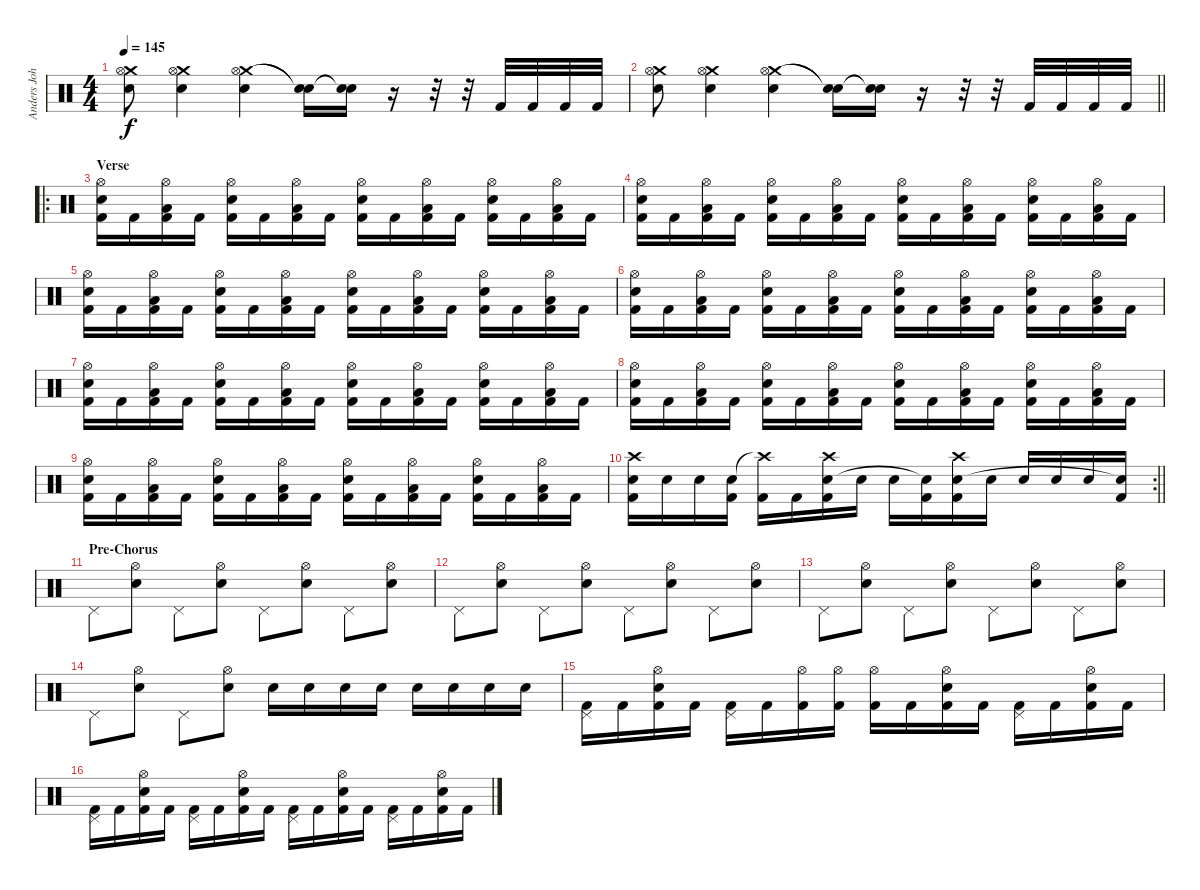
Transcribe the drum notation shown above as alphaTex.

\track ("Anders Johansson (Drums)" "Anders Joh") {instrument percussion}
\staff {score}
\articulation defaults
\ts (4 4)
\tempo 145
\clef neutral
\ks c
("Crash medium (hit)" "Hi-Hat (open)" "Snare (hit) 2").8{dy f} ("Crash medium (hit)" "Hi-Hat (open)" "Snare (hit) 2").4 ("Crash medium (hit)" "Hi-Hat (open)" "Snare (hit) 2").4 ("Snare (hit)"{t} "Snare (hit)"{t}).16 ("Snare (hit)"{t} "Snare (hit)"{t}).16 r.16 r.32 r.32 "Kick (hit) 2".32 "Kick (hit) 2".32 "Kick (hit) 2".32 "Kick (hit) 2".32 |
\barLineRight lightlight
("Crash medium (hit)" "Hi-Hat (open)" "Snare (hit) 2").8 ("Crash medium (hit)" "Hi-Hat (open)" "Snare (hit) 2").4 ("Crash medium (hit)" "Hi-Hat (open)" "Snare (hit) 2").4 ("Snare (hit)"{t} "Snare (hit)"{t}).16 ("Snare (hit)"{t} "Snare (hit)"{t}).16 r.16 r.32 r.32 "Kick (hit) 2".32 "Kick (hit) 2".32 "Kick (hit) 2".32 "Kick (hit) 2".32 |
\ro
\section ("" "Verse")
("Kick (hit) 2" "Electric Snare (hit)" "Hi-Hat (open)").16 "Kick (hit) 2".16 ("Kick (hit) 2" "Low Tom (hit)" "Hi-Hat (open)").16 "Kick (hit) 2".16 ("Kick (hit) 2" "Electric Snare (hit)" "Hi-Hat (open)").16 "Kick (hit) 2".16 ("Kick (hit) 2" "Low Tom (hit)" "Hi-Hat (open)").16 "Kick (hit) 2".16 ("Kick (hit) 2" "Electric Snare (hit)" "Hi-Hat (open)").16 "Kick (hit) 2".16 ("Kick (hit) 2" "Low Tom (hit)" "Hi-Hat (open)").16 "Kick (hit) 2".16 ("Kick (hit) 2" "Electric Snare (hit)" "Hi-Hat (open)").16 "Kick (hit) 2".16 ("Kick (hit) 2" "Low Tom (hit)" "Hi-Hat (open)").16 "Kick (hit) 2".16 |
("Kick (hit) 2" "Electric Snare (hit)" "Hi-Hat (open)").16 "Kick (hit) 2".16 ("Kick (hit) 2" "Low Tom (hit)" "Hi-Hat (open)").16 "Kick (hit) 2".16 ("Kick (hit) 2" "Electric Snare (hit)" "Hi-Hat (open)").16 "Kick (hit) 2".16 ("Kick (hit) 2" "Low Tom (hit)" "Hi-Hat (open)").16 "Kick (hit) 2".16 ("Kick (hit) 2" "Electric Snare (hit)" "Hi-Hat (open)").16 "Kick (hit) 2".16 ("Kick (hit) 2" "Low Tom (hit)" "Hi-Hat (open)").16 "Kick (hit) 2".16 ("Kick (hit) 2" "Electric Snare (hit)" "Hi-Hat (open)").16 "Kick (hit) 2".16 ("Kick (hit) 2" "Low Tom (hit)" "Hi-Hat (open)").16 "Kick (hit) 2".16 |
("Kick (hit) 2" "Electric Snare (hit)" "Hi-Hat (open)").16 "Kick (hit) 2".16 ("Kick (hit) 2" "Low Tom (hit)" "Hi-Hat (open)").16 "Kick (hit) 2".16 ("Kick (hit) 2" "Electric Snare (hit)" "Hi-Hat (open)").16 "Kick (hit) 2".16 ("Kick (hit) 2" "Low Tom (hit)" "Hi-Hat (open)").16 "Kick (hit) 2".16 ("Kick (hit) 2" "Electric Snare (hit)" "Hi-Hat (open)").16 "Kick (hit) 2".16 ("Kick (hit) 2" "Low Tom (hit)" "Hi-Hat (open)").16 "Kick (hit) 2".16 ("Kick (hit) 2" "Electric Snare (hit)" "Hi-Hat (open)").16 "Kick (hit) 2".16 ("Kick (hit) 2" "Low Tom (hit)" "Hi-Hat (open)").16 "Kick (hit) 2".16 |
("Kick (hit) 2" "Electric Snare (hit)" "Hi-Hat (open)").16 "Kick (hit) 2".16 ("Kick (hit) 2" "Low Tom (hit)" "Hi-Hat (open)").16 "Kick (hit) 2".16 ("Kick (hit) 2" "Electric Snare (hit)" "Hi-Hat (open)").16 "Kick (hit) 2".16 ("Kick (hit) 2" "Low Tom (hit)" "Hi-Hat (open)").16 "Kick (hit) 2".16 ("Kick (hit) 2" "Electric Snare (hit)" "Hi-Hat (open)").16 "Kick (hit) 2".16 ("Kick (hit) 2" "Low Tom (hit)" "Hi-Hat (open)").16 "Kick (hit) 2".16 ("Kick (hit) 2" "Electric Snare (hit)" "Hi-Hat (open)").16 "Kick (hit) 2".16 ("Kick (hit) 2" "Low Tom (hit)" "Hi-Hat (open)").16 "Kick (hit) 2".16 |
("Kick (hit) 2" "Electric Snare (hit)" "Hi-Hat (open)").16 "Kick (hit) 2".16 ("Kick (hit) 2" "Low Tom (hit)" "Hi-Hat (open)").16 "Kick (hit) 2".16 ("Kick (hit) 2" "Electric Snare (hit)" "Hi-Hat (open)").16 "Kick (hit) 2".16 ("Kick (hit) 2" "Low Tom (hit)" "Hi-Hat (open)").16 "Kick (hit) 2".16 ("Kick (hit) 2" "Electric Snare (hit)" "Hi-Hat (open)").16 "Kick (hit) 2".16 ("Kick (hit) 2" "Low Tom (hit)" "Hi-Hat (open)").16 "Kick (hit) 2".16 ("Kick (hit) 2" "Electric Snare (hit)" "Hi-Hat (open)").16 "Kick (hit) 2".16 ("Kick (hit) 2" "Low Tom (hit)" "Hi-Hat (open)").16 "Kick (hit) 2".16 |
("Kick (hit) 2" "Electric Snare (hit)" "Hi-Hat (open)").16 "Kick (hit) 2".16 ("Kick (hit) 2" "Low Tom (hit)" "Hi-Hat (open)").16 "Kick (hit) 2".16 ("Kick (hit) 2" "Electric Snare (hit)" "Hi-Hat (open)").16 "Kick (hit) 2".16 ("Kick (hit) 2" "Low Tom (hit)" "Hi-Hat (open)").16 "Kick (hit) 2".16 ("Kick (hit) 2" "Electric Snare (hit)" "Hi-Hat (open)").16 "Kick (hit) 2".16 ("Kick (hit) 2" "Low Tom (hit)" "Hi-Hat (open)").16 "Kick (hit) 2".16 ("Kick (hit) 2" "Electric Snare (hit)" "Hi-Hat (open)").16 "Kick (hit) 2".16 ("Kick (hit) 2" "Low Tom (hit)" "Hi-Hat (open)").16 "Kick (hit) 2".16 |
("Kick (hit) 2" "Electric Snare (hit)" "Hi-Hat (open)").16 "Kick (hit) 2".16 ("Kick (hit) 2" "Low Tom (hit)" "Hi-Hat (open)").16 "Kick (hit) 2".16 ("Kick (hit) 2" "Electric Snare (hit)" "Hi-Hat (open)").16 "Kick (hit) 2".16 ("Kick (hit) 2" "Low Tom (hit)" "Hi-Hat (open)").16 "Kick (hit) 2".16 ("Kick (hit) 2" "Electric Snare (hit)" "Hi-Hat (open)").16 "Kick (hit) 2".16 ("Kick (hit) 2" "Low Tom (hit)" "Hi-Hat (open)").16 "Kick (hit) 2".16 ("Kick (hit) 2" "Electric Snare (hit)" "Hi-Hat (open)").16 "Kick (hit) 2".16 ("Kick (hit) 2" "Low Tom (hit)" "Hi-Hat (open)").16 "Kick (hit) 2".16 |
\rc 2
\barLineRight lightlight
("Kick (hit) 2" "Snare (hit) 2" "Crash high (hit)").16 "Snare (hit) 2".16 "Snare (hit) 2".16 ("Kick (hit) 2" "Snare (hit) 2").16 ("Kick (hit) 2" "Crash high (hit)"{t}).16 "Kick (hit) 2".16 ("Kick (hit) 2" "Snare (hit) 2" "Crash high (hit)").16 "Snare (hit) 2".16 "Snare (hit) 2".16 ("Kick (hit) 2" "Snare (hit)"{t}).16 ("Kick (hit) 2" "Snare (hit) 2" "Crash high (hit)").16 "Snare (hit) 2".16 "Snare (hit) 2".16 "Snare (hit) 2".16 "Snare (hit) 2".16 ("Kick (hit) 2" "Snare (hit)"{t}).16 |
\section ("" "Pre-Chorus")
"Pedal Hi-Hat (hit)".8 ("Hi-Hat (open)" "Electric Snare (hit)").8 "Pedal Hi-Hat (hit)".8 ("Hi-Hat (open)" "Electric Snare (hit)").8 "Pedal Hi-Hat (hit)".8 ("Hi-Hat (open)" "Electric Snare (hit)").8 "Pedal Hi-Hat (hit)".8 ("Hi-Hat (open)" "Electric Snare (hit)").8 |
"Pedal Hi-Hat (hit)".8 ("Hi-Hat (open)" "Electric Snare (hit)").8 "Pedal Hi-Hat (hit)".8 ("Hi-Hat (open)" "Electric Snare (hit)").8 "Pedal Hi-Hat (hit)".8 ("Hi-Hat (open)" "Electric Snare (hit)").8 "Pedal Hi-Hat (hit)".8 ("Hi-Hat (open)" "Electric Snare (hit)").8 |
"Pedal Hi-Hat (hit)".8 ("Hi-Hat (open)" "Electric Snare (hit)").8 "Pedal Hi-Hat (hit)".8 ("Hi-Hat (open)" "Electric Snare (hit)").8 "Pedal Hi-Hat (hit)".8 ("Hi-Hat (open)" "Electric Snare (hit)").8 "Pedal Hi-Hat (hit)".8 ("Hi-Hat (open)" "Electric Snare (hit)").8 |
"Pedal Hi-Hat (hit)".8 ("Electric Snare (hit)" "Hi-Hat (open)").8 "Pedal Hi-Hat (hit)".8 ("Electric Snare (hit)" "Hi-Hat (open)").8 "Snare (hit) 2".16 "Snare (hit) 2".16 "Snare (hit) 2".16 "Snare (hit) 2".16 "Electric Snare (hit)".16 "Electric Snare (hit)".16 "Electric Snare (hit)".16 "Electric Snare (hit)".16 |
("Kick (hit) 2" "Pedal Hi-Hat (hit)").16 "Kick (hit) 2".16 ("Kick (hit) 2" "Hi-Hat (open)" "Electric Snare (hit)").16 "Kick (hit) 2".16 ("Kick (hit) 2" "Pedal Hi-Hat (hit)").16 "Kick (hit) 2".16 ("Kick (hit) 2" "Hi-Hat (open)").16 ("Kick (hit) 2" "Hi-Hat (open)").16 ("Kick (hit) 2" "Hi-Hat (open)").16 "Kick (hit) 2".16 ("Kick (hit) 2" "Hi-Hat (open)" "Electric Snare (hit)").16 "Kick (hit) 2".16 ("Kick (hit) 2" "Pedal Hi-Hat (hit)").16 "Kick (hit) 2".16 ("Kick (hit) 2" "Hi-Hat (open)" "Electric Snare (hit)").16 "Kick (hit) 2".16 |
("Kick (hit) 2" "Pedal Hi-Hat (hit)").16 "Kick (hit) 2".16 ("Kick (hit) 2" "Hi-Hat (open)" "Electric Snare (hit)").16 "Kick (hit) 2".16 ("Kick (hit) 2" "Pedal Hi-Hat (hit)").16 "Kick (hit) 2".16 ("Kick (hit) 2" "Hi-Hat (open)" "Electric Snare (hit)").16 "Kick (hit) 2".16 ("Kick (hit) 2" "Pedal Hi-Hat (hit)").16 "Kick (hit) 2".16 ("Kick (hit) 2" "Hi-Hat (open)" "Electric Snare (hit)").16 "Kick (hit) 2".16 ("Kick (hit) 2" "Pedal Hi-Hat (hit)").16 "Kick (hit) 2".16 ("Kick (hit) 2" "Hi-Hat (open)" "Electric Snare (hit)").16 "Kick (hit) 2".16
